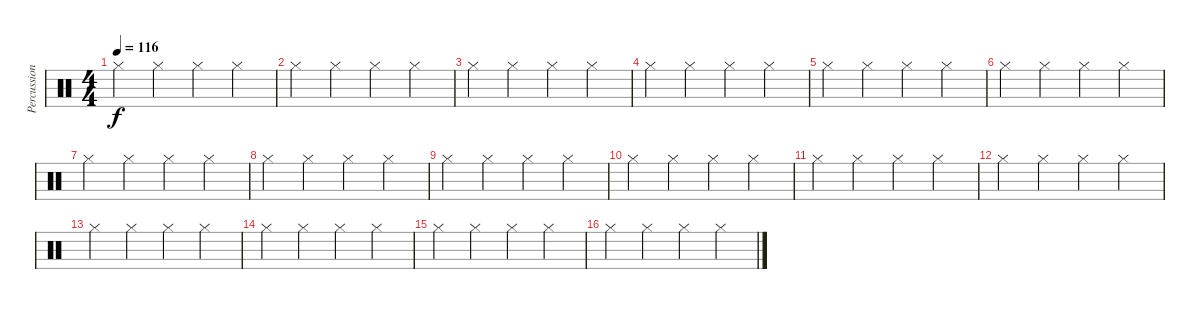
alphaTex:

\track ("Percussions" "Percussion") {instrument percussion}
\staff {score}
\articulation defaults
\ts (4 4)
\tempo 116
\clef neutral
\ks c "Hi-Hat (closed)".4{dy f} "Hi-Hat (closed)".4 "Hi-Hat (closed)".4 "Hi-Hat (closed)".4
|
"Hi-Hat (closed)".4 "Hi-Hat (closed)".4 "Hi-Hat (closed)".4 "Hi-Hat (closed)".4 |
"Hi-Hat (closed)".4 "Hi-Hat (closed)".4 "Hi-Hat (closed)".4 "Hi-Hat (closed)".4 |
"Hi-Hat (closed)".4 "Hi-Hat (closed)".4 "Hi-Hat (closed)".4 "Hi-Hat (closed)".4 |
"Hi-Hat (closed)".4 "Hi-Hat (closed)".4 "Hi-Hat (closed)".4 "Hi-Hat (closed)".4 |
"Hi-Hat (closed)".4 "Hi-Hat (closed)".4 "Hi-Hat (closed)".4 "Hi-Hat (closed)".4 |
"Hi-Hat (closed)".4 "Hi-Hat (closed)".4 "Hi-Hat (closed)".4 "Hi-Hat (closed)".4 |
"Hi-Hat (closed)".4 "Hi-Hat (closed)".4 "Hi-Hat (closed)".4 "Hi-Hat (closed)".4 |
"Hi-Hat (closed)".4 "Hi-Hat (closed)".4 "Hi-Hat (closed)".4 "Hi-Hat (closed)".4 |
"Hi-Hat (closed)".4 "Hi-Hat (closed)".4 "Hi-Hat (closed)".4 "Hi-Hat (closed)".4 |
"Hi-Hat (closed)".4 "Hi-Hat (closed)".4 "Hi-Hat (closed)".4 "Hi-Hat (closed)".4 |
"Hi-Hat (closed)".4 "Hi-Hat (closed)".4 "Hi-Hat (closed)".4 "Hi-Hat (closed)".4 |
"Hi-Hat (closed)".4 "Hi-Hat (closed)".4 "Hi-Hat (closed)".4 "Hi-Hat (closed)".4 |
"Hi-Hat (closed)".4 "Hi-Hat (closed)".4 "Hi-Hat (closed)".4 "Hi-Hat (closed)".4 |
"Hi-Hat (closed)".4 "Hi-Hat (closed)".4 "Hi-Hat (closed)".4 "Hi-Hat (closed)".4 |
"Hi-Hat (closed)".4 "Hi-Hat (closed)".4 "Hi-Hat (closed)".4 "Hi-Hat (closed)".4
